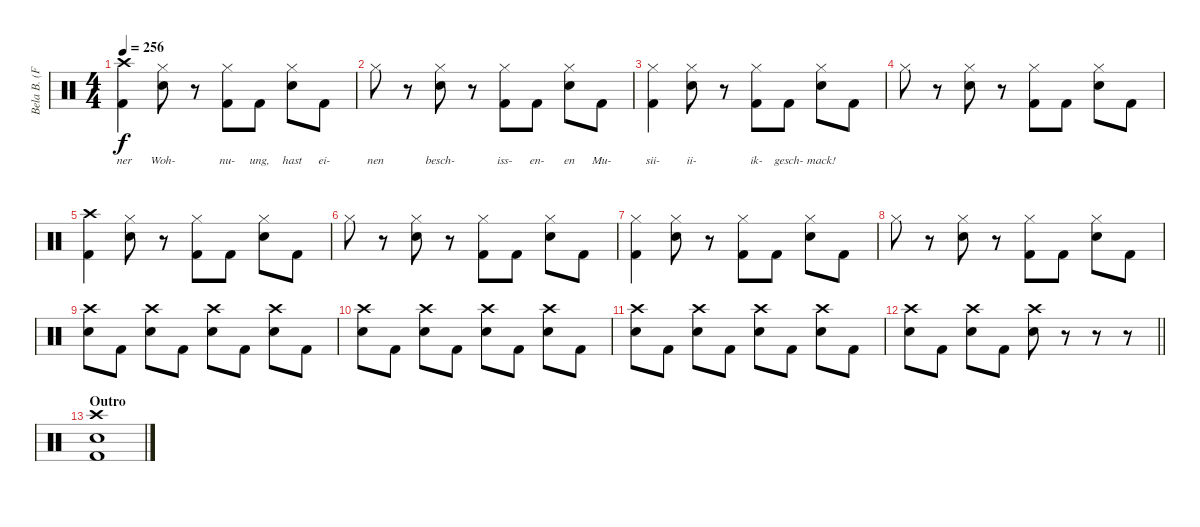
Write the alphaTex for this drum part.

\track ("Bela B. (Felsenheimer)" "Bela B. (F") {instrument percussion}
\staff {score}
\articulation defaults
\ts (4 4)
\tempo 256
\clef neutral
\ks c
("Crash high (hit)" "Kick (hit) 2").4{lyrics (0 "ner") lyrics (1 "") lyrics (2 "") lyrics (3 "") lyrics (4 "") dy f} ("Hi-Hat (closed)" "Snare (hit) 2").8{lyrics (0 "Woh-") lyrics (1 "") lyrics (2 "") lyrics (3 "") lyrics (4 "")} r.8 ("Hi-Hat (closed)" "Kick (hit) 2").8{lyrics (0 "nu-") lyrics (1 "") lyrics (2 "") lyrics (3 "") lyrics (4 "")} "Kick (hit) 2".8{lyrics (0 "ung,") lyrics (1 "") lyrics (2 "") lyrics (3 "") lyrics (4 "")} ("Hi-Hat (closed)" "Snare (hit) 2").8{lyrics (0 "hast") lyrics (1 "") lyrics (2 "") lyrics (3 "") lyrics (4 "")} "Kick (hit) 2".8{lyrics (0 "ei-") lyrics (1 "") lyrics (2 "") lyrics (3 "") lyrics (4 "")} |
"Hi-Hat (closed)".8{lyrics (0 "nen") lyrics (1 "") lyrics (2 "") lyrics (3 "") lyrics (4 "")} r.8 ("Hi-Hat (closed)" "Snare (hit) 2").8{lyrics (0 "besch-") lyrics (1 "") lyrics (2 "") lyrics (3 "") lyrics (4 "")} r.8 ("Hi-Hat (closed)" "Kick (hit) 2").8{lyrics (0 "iss-") lyrics (1 "") lyrics (2 "") lyrics (3 "") lyrics (4 "")} "Kick (hit) 2".8{lyrics (0 "en-") lyrics (1 "") lyrics (2 "") lyrics (3 "") lyrics (4 "")} ("Hi-Hat (closed)" "Snare (hit) 2").8{lyrics (0 "en") lyrics (1 "") lyrics (2 "") lyrics (3 "") lyrics (4 "")} "Kick (hit) 2".8{lyrics (0 "Mu-") lyrics (1 "") lyrics (2 "") lyrics (3 "") lyrics (4 "")} |
("Hi-Hat (closed)" "Kick (hit) 2").4{lyrics (0 "sii-") lyrics (1 "") lyrics (2 "") lyrics (3 "") lyrics (4 "")} ("Hi-Hat (closed)" "Snare (hit) 2").8{lyrics (0 "ii-") lyrics (1 "") lyrics (2 "") lyrics (3 "") lyrics (4 "")} r.8 ("Hi-Hat (closed)" "Kick (hit) 2").8{lyrics (0 "ik-") lyrics (1 "") lyrics (2 "") lyrics (3 "") lyrics (4 "")} "Kick (hit) 2".8{lyrics (0 "gesch-") lyrics (1 "") lyrics (2 "") lyrics (3 "") lyrics (4 "")} ("Hi-Hat (closed)" "Snare (hit) 2").8{lyrics (0 "mack!") lyrics (1 "") lyrics (2 "") lyrics (3 "") lyrics (4 "")} "Kick (hit) 2".8 |
"Hi-Hat (closed)".8 r.8 ("Hi-Hat (closed)" "Snare (hit) 2").8 r.8 ("Hi-Hat (closed)" "Kick (hit) 2").8 "Kick (hit) 2".8 ("Hi-Hat (closed)" "Snare (hit) 2").8 "Kick (hit) 2".8 |
("Crash high (hit)" "Kick (hit) 2").4 ("Hi-Hat (closed)" "Snare (hit) 2").8 r.8 ("Hi-Hat (closed)" "Kick (hit) 2").8 "Kick (hit) 2".8 ("Hi-Hat (closed)" "Snare (hit) 2").8 "Kick (hit) 2".8 |
"Hi-Hat (closed)".8 r.8 ("Hi-Hat (closed)" "Snare (hit) 2").8 r.8 ("Hi-Hat (closed)" "Kick (hit) 2").8 "Kick (hit) 2".8 ("Hi-Hat (closed)" "Snare (hit) 2").8 "Kick (hit) 2".8 |
("Hi-Hat (closed)" "Kick (hit) 2").4 ("Hi-Hat (closed)" "Snare (hit) 2").8 r.8 ("Hi-Hat (closed)" "Kick (hit) 2").8 "Kick (hit) 2".8 ("Hi-Hat (closed)" "Snare (hit) 2").8 "Kick (hit) 2".8 |
"Hi-Hat (closed)".8 r.8 ("Hi-Hat (closed)" "Snare (hit) 2").8 r.8 ("Hi-Hat (closed)" "Kick (hit) 2").8 "Kick (hit) 2".8 ("Hi-Hat (closed)" "Snare (hit) 2").8 "Kick (hit) 2".8 |
("Crash high (hit)" "Snare (hit) 2").8 "Kick (hit) 2".8 ("Crash high (hit)" "Snare (hit) 2").8 "Kick (hit) 2".8 ("Crash high (hit)" "Snare (hit) 2").8 "Kick (hit) 2".8 ("Crash high (hit)" "Snare (hit) 2").8 "Kick (hit) 2".8 |
("Crash high (hit)" "Snare (hit) 2").8 "Kick (hit) 2".8 ("Crash high (hit)" "Snare (hit) 2").8 "Kick (hit) 2".8 ("Crash high (hit)" "Snare (hit) 2").8 "Kick (hit) 2".8 ("Crash high (hit)" "Snare (hit) 2").8 "Kick (hit) 2".8 |
("Crash high (hit)" "Snare (hit) 2").8 "Kick (hit) 2".8 ("Crash high (hit)" "Snare (hit) 2").8 "Kick (hit) 2".8 ("Crash high (hit)" "Snare (hit) 2").8 "Kick (hit) 2".8 ("Crash high (hit)" "Snare (hit) 2").8 "Kick (hit) 2".8 |
\barLineRight lightlight
("Crash high (hit)" "Snare (hit) 2").8 "Kick (hit) 2".8 ("Crash high (hit)" "Snare (hit) 2").8 "Kick (hit) 2".8 ("Crash high (hit)" "Snare (hit) 2").8 r.8 r.8 r.8 |
\section ("" "Outro ")
("Snare (hit) 2" "Kick (hit) 2" "Crash high (hit)").1
